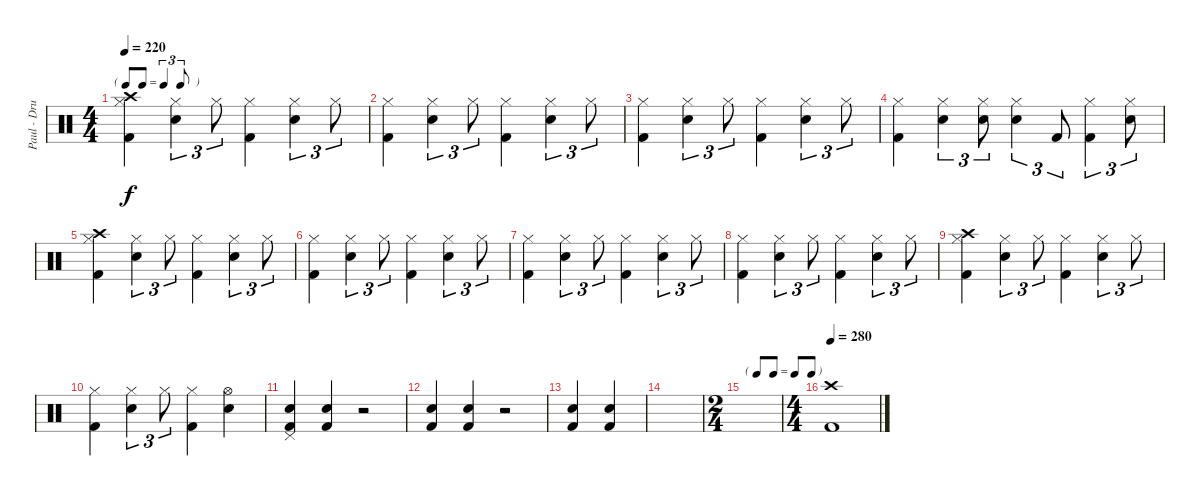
\track ("Paul - Drums" "Paul - Dru") {instrument percussion}
\staff {score}
\articulation defaults
\ts (4 4)
\tf triplet8th
\tempo 220
\clef neutral
\ks c
("Hi-Hat (closed)" "Crash high (hit)" "Kick (hit) 2").4{dy f} ("Hi-Hat (closed)" "Electric Snare (hit)").4{tu (3 2)} "Hi-Hat (closed)".8{tu (3 2)} ("Hi-Hat (closed)" "Kick (hit) 2").4 ("Hi-Hat (closed)" "Electric Snare (hit)").4{tu (3 2)} "Hi-Hat (closed)".8{tu (3 2)} |
("Hi-Hat (closed)" "Kick (hit) 2").4 ("Hi-Hat (closed)" "Electric Snare (hit)").4{tu (3 2)} "Hi-Hat (closed)".8{tu (3 2)} ("Hi-Hat (closed)" "Kick (hit) 2").4 ("Hi-Hat (closed)" "Electric Snare (hit)").4{tu (3 2)} "Hi-Hat (closed)".8{tu (3 2)} |
("Hi-Hat (closed)" "Kick (hit) 2").4 ("Hi-Hat (closed)" "Electric Snare (hit)").4{tu (3 2)} "Hi-Hat (closed)".8{tu (3 2)} ("Hi-Hat (closed)" "Kick (hit) 2").4 ("Hi-Hat (closed)" "Electric Snare (hit)").4{tu (3 2)} "Hi-Hat (closed)".8{tu (3 2)} |
("Hi-Hat (closed)" "Kick (hit) 2").4 ("Hi-Hat (closed)" "Electric Snare (hit)").4{tu (3 2)} ("Hi-Hat (closed)" "Electric Snare (hit)").8{tu (3 2)} ("Hi-Hat (closed)" "Electric Snare (hit)").4{tu (3 2)} "Kick (hit) 2".8{tu (3 2)} ("Hi-Hat (closed)" "Kick (hit) 2").4{tu (3 2)} ("Hi-Hat (closed)" "Electric Snare (hit)").8{tu (3 2)} |
("Hi-Hat (closed)" "Crash high (hit)" "Kick (hit) 2").4 ("Hi-Hat (closed)" "Electric Snare (hit)").4{tu (3 2)} "Hi-Hat (closed)".8{tu (3 2)} ("Hi-Hat (closed)" "Kick (hit) 2").4 ("Hi-Hat (closed)" "Electric Snare (hit)").4{tu (3 2)} "Hi-Hat (closed)".8{tu (3 2)} |
("Hi-Hat (closed)" "Kick (hit) 2").4 ("Hi-Hat (closed)" "Electric Snare (hit)").4{tu (3 2)} "Hi-Hat (closed)".8{tu (3 2)} ("Hi-Hat (closed)" "Kick (hit) 2").4 ("Hi-Hat (closed)" "Electric Snare (hit)").4{tu (3 2)} "Hi-Hat (closed)".8{tu (3 2)} |
("Hi-Hat (closed)" "Kick (hit) 2").4 ("Hi-Hat (closed)" "Electric Snare (hit)").4{tu (3 2)} "Hi-Hat (closed)".8{tu (3 2)} ("Hi-Hat (closed)" "Kick (hit) 2").4 ("Hi-Hat (closed)" "Electric Snare (hit)").4{tu (3 2)} "Hi-Hat (closed)".8{tu (3 2)} |
("Hi-Hat (closed)" "Kick (hit) 2").4 ("Hi-Hat (closed)" "Electric Snare (hit)").4{tu (3 2)} "Hi-Hat (closed)".8{tu (3 2)} ("Hi-Hat (closed)" "Kick (hit) 2").4 ("Hi-Hat (closed)" "Electric Snare (hit)").4{tu (3 2)} "Hi-Hat (closed)".8{tu (3 2)} |
("Hi-Hat (closed)" "Crash high (hit)" "Kick (hit) 2").4 ("Hi-Hat (closed)" "Electric Snare (hit)").4{tu (3 2)} "Hi-Hat (closed)".8{tu (3 2)} ("Hi-Hat (closed)" "Kick (hit) 2").4 ("Hi-Hat (closed)" "Electric Snare (hit)").4{tu (3 2)} "Hi-Hat (closed)".8{tu (3 2)} |
("Hi-Hat (closed)" "Kick (hit) 2").4 ("Hi-Hat (closed)" "Electric Snare (hit)").4{tu (3 2)} "Hi-Hat (closed)".8{tu (3 2)} ("Hi-Hat (closed)" "Kick (hit) 2").4 ("Hi-Hat (open)" "Electric Snare (hit)").4 |
("Pedal Hi-Hat (hit)" "Electric Snare (hit)" "Kick (hit) 2").4 ("Electric Snare (hit)" "Kick (hit) 2").4 r.2 |
("Electric Snare (hit)" "Kick (hit) 2").4 ("Electric Snare (hit)" "Kick (hit) 2").4 r.2 |
("Electric Snare (hit)" "Kick (hit) 2").4 ("Electric Snare (hit)" "Kick (hit) 2").4 |
|
\ts (2 4)
\tf none
|
\ts (4 4)
\tempo 280
("Crash high (hit)" "Kick (hit) 2").1
